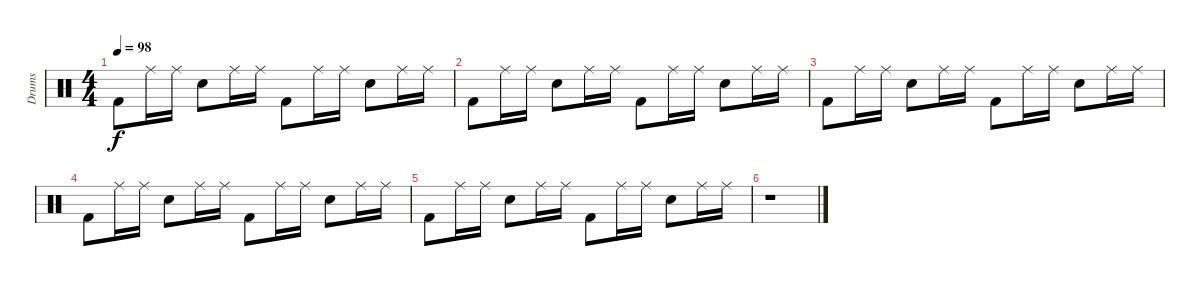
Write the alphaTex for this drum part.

\track ("Drums" "Drums") {instrument percussion}
\staff {score}
\articulation defaults
\ts (4 4)
\tempo 98
\clef neutral
\ks c "Kick (hit) 2".8{dy f} "Ride (middle)".16 "Ride (middle)".16 "Snare (hit) 2".8 "Ride (middle)".16 "Ride (middle)".16 "Kick (hit) 2".8 "Ride (middle)".16 "Ride (middle)".16 "Snare (hit) 2".8 "Ride (middle)".16 "Ride (middle)".16
|
"Kick (hit) 2".8 "Ride (middle)".16 "Ride (middle)".16 "Snare (hit) 2".8 "Ride (middle)".16 "Ride (middle)".16 "Kick (hit) 2".8 "Ride (middle)".16 "Ride (middle)".16 "Snare (hit) 2".8 "Ride (middle)".16 "Ride (middle)".16 |
"Kick (hit) 2".8 "Ride (middle)".16 "Ride (middle)".16 "Snare (hit) 2".8 "Ride (middle)".16 "Ride (middle)".16 "Kick (hit) 2".8 "Ride (middle)".16 "Ride (middle)".16 "Snare (hit) 2".8 "Ride (middle)".16 "Ride (middle)".16 |
"Kick (hit) 2".8 "Ride (middle)".16 "Ride (middle)".16 "Snare (hit) 2".8 "Ride (middle)".16 "Ride (middle)".16 "Kick (hit) 2".8 "Ride (middle)".16 "Ride (middle)".16 "Snare (hit) 2".8 "Ride (middle)".16 "Ride (middle)".16 |
"Kick (hit) 2".8 "Ride (middle)".16 "Ride (middle)".16 "Snare (hit) 2".8 "Ride (middle)".16 "Ride (middle)".16 "Kick (hit) 2".8 "Ride (middle)".16 "Ride (middle)".16 "Snare (hit) 2".8 "Ride (middle)".16 "Ride (middle)".16 |
r.1
